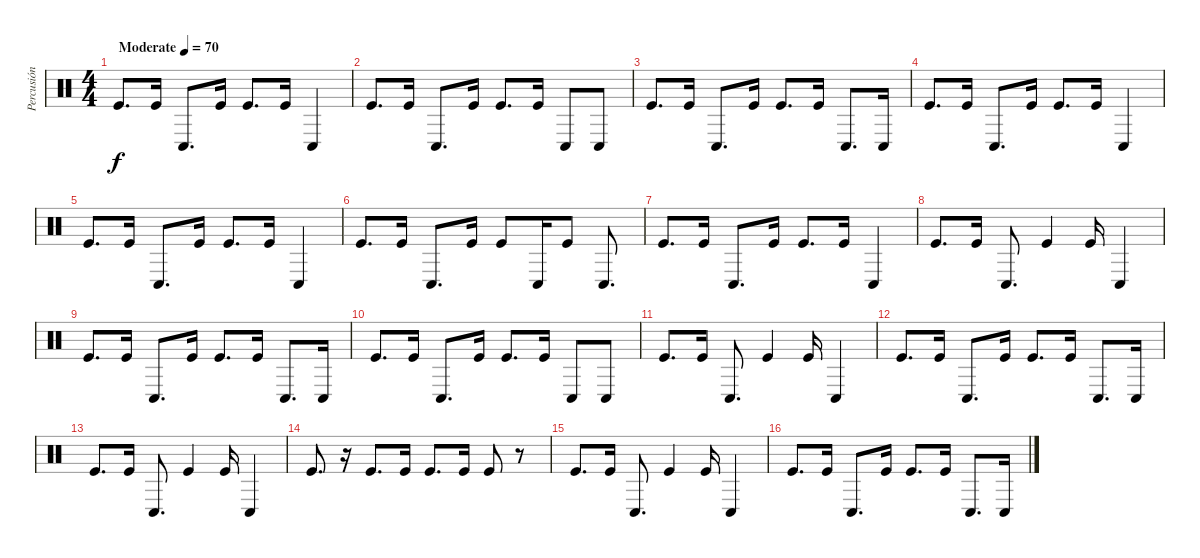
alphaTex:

\track ("Percusión" "Percusión") {instrument percussion}
\staff {score}
\articulation defaults
\ts (4 4)
\tempo (70 "Moderate")
\clef neutral
\ks c "Kick (hit)".8{d dy f} "Kick (hit)".16 "Conga low (hit)".8{d} "Kick (hit)".16 "Kick (hit)".8{d} "Kick (hit)".16 "Conga low (hit)".4
|
"Kick (hit)".8{d} "Kick (hit)".16 "Conga low (hit)".8{d} "Kick (hit)".16 "Kick (hit)".8{d} "Kick (hit)".16 "Conga low (hit)".8 "Conga low (hit)".8 |
"Kick (hit)".8{d} "Kick (hit)".16 "Conga low (hit)".8{d} "Kick (hit)".16 "Kick (hit)".8{d} "Kick (hit)".16 "Conga low (hit)".8{d} "Conga low (hit)".16 |
"Kick (hit)".8{d} "Kick (hit)".16 "Conga low (hit)".8{d} "Kick (hit)".16 "Kick (hit)".8{d} "Kick (hit)".16 "Conga low (hit)".4 |
"Kick (hit)".8{d} "Kick (hit)".16 "Conga low (hit)".8{d} "Kick (hit)".16 "Kick (hit)".8{d} "Kick (hit)".16 "Conga low (hit)".4 |
"Kick (hit)".8{d} "Kick (hit)".16 "Conga low (hit)".8{d} "Kick (hit)".16 "Kick (hit)".8 "Conga low (hit)".16 "Kick (hit)".8 "Conga low (hit)".8{d} |
"Kick (hit)".8{d} "Kick (hit)".16 "Conga low (hit)".8{d} "Kick (hit)".16 "Kick (hit)".8{d} "Kick (hit)".16 "Conga low (hit)".4 |
"Kick (hit)".8{d} "Kick (hit)".16 "Conga low (hit)".8{d} "Kick (hit)".4 "Kick (hit)".16 "Conga low (hit)".4 |
"Kick (hit)".8{d} "Kick (hit)".16 "Conga low (hit)".8{d} "Kick (hit)".16 "Kick (hit)".8{d} "Kick (hit)".16 "Conga low (hit)".8{d} "Conga low (hit)".16 |
"Kick (hit)".8{d} "Kick (hit)".16 "Conga low (hit)".8{d} "Kick (hit)".16 "Kick (hit)".8{d} "Kick (hit)".16 "Conga low (hit)".8 "Conga low (hit)".8 |
"Kick (hit)".8{d} "Kick (hit)".16 "Conga low (hit)".8{d} "Kick (hit)".4 "Kick (hit)".16 "Conga low (hit)".4 |
"Kick (hit)".8{d} "Kick (hit)".16 "Conga low (hit)".8{d} "Kick (hit)".16 "Kick (hit)".8{d} "Kick (hit)".16 "Conga low (hit)".8{d} "Conga low (hit)".16 |
"Kick (hit)".8{d} "Kick (hit)".16 "Conga low (hit)".8{d} "Kick (hit)".4 "Kick (hit)".16 "Conga low (hit)".4 |
"Kick (hit)".8{d} r.16 "Kick (hit)".8{d} "Kick (hit)".16 "Kick (hit)".8{d} "Kick (hit)".16 "Kick (hit)".8 r.8 |
"Kick (hit)".8{d} "Kick (hit)".16 "Conga low (hit)".8{d} "Kick (hit)".4 "Kick (hit)".16 "Conga low (hit)".4 |
"Kick (hit)".8{d} "Kick (hit)".16 "Conga low (hit)".8{d} "Kick (hit)".16 "Kick (hit)".8{d} "Kick (hit)".16 "Conga low (hit)".8{d} "Conga low (hit)".16
